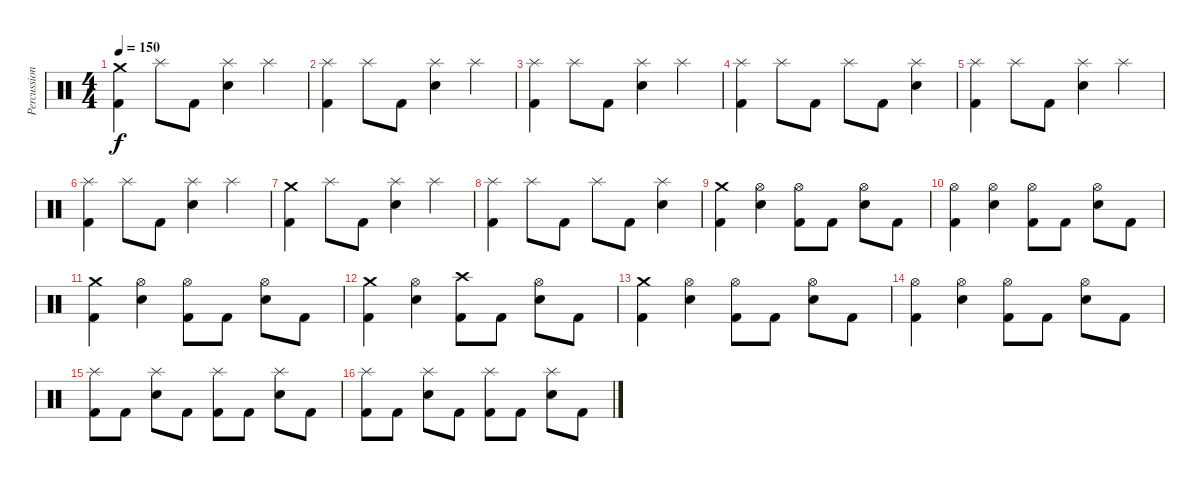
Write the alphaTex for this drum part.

\track ("Percussion" "Percussion") {instrument percussion}
\staff {score}
\articulation defaults
\ts (4 4)
\tempo 150
\clef neutral
\ks c
("Kick (hit) 2" "Crash medium (hit)").4{dy f} "Splash (hit)".8 "Kick (hit) 2".8 ("Snare (hit) 2" "Splash (hit)").4 "Splash (hit)".4 |
("Kick (hit) 2" "Splash (hit)").4 "Splash (hit)".8 "Kick (hit) 2".8 ("Snare (hit) 2" "Splash (hit)").4 "Splash (hit)".4 |
("Kick (hit) 2" "Splash (hit)").4 "Splash (hit)".8 "Kick (hit) 2".8 ("Snare (hit) 2" "Splash (hit)").4 "Splash (hit)".4 |
("Kick (hit) 2" "Splash (hit)").4 "Splash (hit)".8 "Kick (hit) 2".8 "Splash (hit)".8 "Kick (hit) 2".8 ("Snare (hit) 2" "Splash (hit)").4 |
("Kick (hit) 2" "Splash (hit)").4 "Splash (hit)".8 "Kick (hit) 2".8 ("Snare (hit) 2" "Splash (hit)").4 "Splash (hit)".4 |
("Kick (hit) 2" "Splash (hit)").4 "Splash (hit)".8 "Kick (hit) 2".8 ("Snare (hit) 2" "Splash (hit)").4 "Splash (hit)".4 |
("Kick (hit) 2" "Crash medium (hit)").4 "Splash (hit)".8 "Kick (hit) 2".8 ("Snare (hit) 2" "Splash (hit)").4 "Splash (hit)".4 |
("Kick (hit) 2" "Splash (hit)").4 "Splash (hit)".8 "Kick (hit) 2".8 "Splash (hit)".8 "Kick (hit) 2".8 ("Snare (hit) 2" "Splash (hit)").4 |
("Kick (hit) 2" "Crash medium (hit)").4 ("Snare (hit) 2" "Hi-Hat (open)").4 ("Kick (hit) 2" "Hi-Hat (open)").8 "Kick (hit) 2".8 ("Snare (hit) 2" "Hi-Hat (open)").8 "Kick (hit) 2".8 |
("Kick (hit) 2" "Hi-Hat (open)").4 ("Snare (hit) 2" "Hi-Hat (open)").4 ("Kick (hit) 2" "Hi-Hat (open)").8 "Kick (hit) 2".8 ("Snare (hit) 2" "Hi-Hat (open)").8 "Kick (hit) 2".8 |
("Kick (hit) 2" "Crash medium (hit)").4 ("Snare (hit) 2" "Hi-Hat (open)").4 ("Kick (hit) 2" "Hi-Hat (open)").8 "Kick (hit) 2".8 ("Snare (hit) 2" "Hi-Hat (open)").8 "Kick (hit) 2".8 |
("Kick (hit) 2" "Crash medium (hit)").4 ("Snare (hit) 2" "Hi-Hat (open)").4 ("Kick (hit) 2" "Crash high (hit)").8 "Kick (hit) 2".8 ("Snare (hit) 2" "Hi-Hat (open)").8 "Kick (hit) 2".8 |
("Kick (hit) 2" "Crash medium (hit)").4 ("Snare (hit) 2" "Hi-Hat (open)").4 ("Kick (hit) 2" "Hi-Hat (open)").8 "Kick (hit) 2".8 ("Snare (hit) 2" "Hi-Hat (open)").8 "Kick (hit) 2".8 |
("Kick (hit) 2" "Hi-Hat (open)").4 ("Snare (hit) 2" "Hi-Hat (open)").4 ("Kick (hit) 2" "Hi-Hat (open)").8 "Kick (hit) 2".8 ("Snare (hit) 2" "Hi-Hat (open)").8 "Kick (hit) 2".8 |
("Kick (hit) 2" "Splash (hit)").8 "Kick (hit) 2".8 ("Snare (hit) 2" "Splash (hit)").8 "Kick (hit) 2".8 ("Kick (hit) 2" "Splash (hit)").8 "Kick (hit) 2".8 ("Snare (hit) 2" "Splash (hit)").8 "Kick (hit) 2".8 |
("Kick (hit) 2" "Splash (hit)").8 "Kick (hit) 2".8 ("Snare (hit) 2" "Splash (hit)").8 "Kick (hit) 2".8 ("Kick (hit) 2" "Splash (hit)").8 "Kick (hit) 2".8 ("Snare (hit) 2" "Splash (hit)").8 "Kick (hit) 2".8
